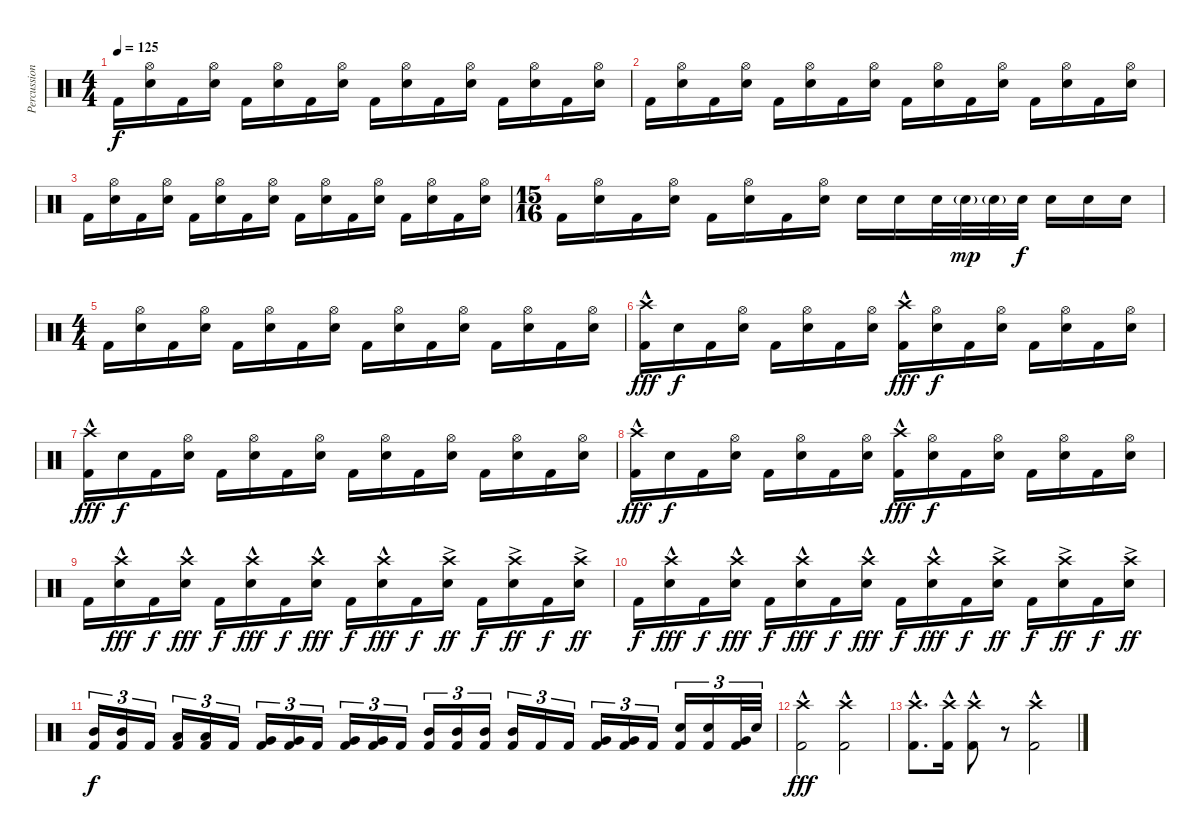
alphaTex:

\track ("Percussion" "Percussion") {instrument percussion}
\staff {score}
\articulation defaults
\ts (4 4)
\tempo 125
\clef neutral
\ks c "Kick (hit) 2".16{dy f}
("Hi-Hat (open)" "Electric Snare (hit)").16 "Kick (hit) 2".16 ("Hi-Hat (open)" "Electric Snare (hit)").16 "Kick (hit) 2".16 ("Hi-Hat (open)" "Electric Snare (hit)").16 "Kick (hit) 2".16 ("Hi-Hat (open)" "Electric Snare (hit)").16 "Kick (hit) 2".16 ("Hi-Hat (open)" "Electric Snare (hit)").16 "Kick (hit) 2".16 ("Hi-Hat (open)" "Electric Snare (hit)").16 "Kick (hit) 2".16 ("Hi-Hat (open)" "Electric Snare (hit)").16 "Kick (hit) 2".16 ("Hi-Hat (open)" "Electric Snare (hit)").16 |
"Kick (hit) 2".16 ("Hi-Hat (open)" "Electric Snare (hit)").16 "Kick (hit) 2".16 ("Hi-Hat (open)" "Electric Snare (hit)").16 "Kick (hit) 2".16 ("Hi-Hat (open)" "Electric Snare (hit)").16 "Kick (hit) 2".16 ("Hi-Hat (open)" "Electric Snare (hit)").16 "Kick (hit) 2".16 ("Hi-Hat (open)" "Electric Snare (hit)").16 "Kick (hit) 2".16 ("Hi-Hat (open)" "Electric Snare (hit)").16 "Kick (hit) 2".16 ("Hi-Hat (open)" "Electric Snare (hit)").16 "Kick (hit) 2".16 ("Hi-Hat (open)" "Electric Snare (hit)").16 |
"Kick (hit) 2".16 ("Hi-Hat (open)" "Electric Snare (hit)").16 "Kick (hit) 2".16 ("Hi-Hat (open)" "Electric Snare (hit)").16 "Kick (hit) 2".16 ("Hi-Hat (open)" "Electric Snare (hit)").16 "Kick (hit) 2".16 ("Hi-Hat (open)" "Electric Snare (hit)").16 "Kick (hit) 2".16 ("Hi-Hat (open)" "Electric Snare (hit)").16 "Kick (hit) 2".16 ("Hi-Hat (open)" "Electric Snare (hit)").16 "Kick (hit) 2".16 ("Hi-Hat (open)" "Electric Snare (hit)").16 "Kick (hit) 2".16 ("Hi-Hat (open)" "Electric Snare (hit)").16 |
\ts (15 16)
"Kick (hit) 2".16 ("Hi-Hat (open)" "Electric Snare (hit)").16 "Kick (hit) 2".16 ("Hi-Hat (open)" "Electric Snare (hit)").16 "Kick (hit) 2".16 ("Hi-Hat (open)" "Electric Snare (hit)").16 "Kick (hit) 2".16 ("Hi-Hat (open)" "Electric Snare (hit)").16 "Electric Snare (hit)".16 "Electric Snare (hit)".16 "Electric Snare (hit)".32 "Electric Snare (hit)"{g}.32{dy mp} "Electric Snare (hit)"{g}.32 "Electric Snare (hit)".32{dy f} "Electric Snare (hit)".16 "Electric Snare (hit)".16 "Electric Snare (hit)".16 |
\ts (4 4)
"Kick (hit) 2".16 ("Hi-Hat (open)" "Electric Snare (hit)").16 "Kick (hit) 2".16 ("Hi-Hat (open)" "Electric Snare (hit)").16 "Kick (hit) 2".16 ("Hi-Hat (open)" "Electric Snare (hit)").16 "Kick (hit) 2".16 ("Hi-Hat (open)" "Electric Snare (hit)").16 "Kick (hit) 2".16 ("Hi-Hat (open)" "Electric Snare (hit)").16 "Kick (hit) 2".16 ("Hi-Hat (open)" "Electric Snare (hit)").16 "Kick (hit) 2".16 ("Hi-Hat (open)" "Electric Snare (hit)").16 "Kick (hit) 2".16 ("Hi-Hat (open)" "Electric Snare (hit)").16 |
("Crash high (hit)"{hac} "Kick (hit) 2").16{dy fff} "Electric Snare (hit)".16{dy f} "Kick (hit) 2".16 ("Hi-Hat (open)" "Electric Snare (hit)").16 "Kick (hit) 2".16 ("Hi-Hat (open)" "Electric Snare (hit)").16 "Kick (hit) 2".16 ("Hi-Hat (open)" "Electric Snare (hit)").16 ("Crash high (hit)"{hac} "Kick (hit) 2").16{dy fff} ("Hi-Hat (open)" "Electric Snare (hit)").16{dy f} "Kick (hit) 2".16 ("Hi-Hat (open)" "Electric Snare (hit)").16 "Kick (hit) 2".16 ("Hi-Hat (open)" "Electric Snare (hit)").16 "Kick (hit) 2".16 ("Hi-Hat (open)" "Electric Snare (hit)").16 |
("Crash high (hit)"{hac} "Kick (hit) 2").16{dy fff} "Electric Snare (hit)".16{dy f} "Kick (hit) 2".16 ("Hi-Hat (open)" "Electric Snare (hit)").16 "Kick (hit) 2".16 ("Hi-Hat (open)" "Electric Snare (hit)").16 "Kick (hit) 2".16 ("Hi-Hat (open)" "Electric Snare (hit)").16 "Kick (hit) 2".16 ("Hi-Hat (open)" "Electric Snare (hit)").16 "Kick (hit) 2".16 ("Hi-Hat (open)" "Electric Snare (hit)").16 "Kick (hit) 2".16 ("Hi-Hat (open)" "Electric Snare (hit)").16 "Kick (hit) 2".16 ("Hi-Hat (open)" "Electric Snare (hit)").16 |
("Crash high (hit)"{hac} "Kick (hit) 2").16{dy fff} "Electric Snare (hit)".16{dy f} "Kick (hit) 2".16 ("Hi-Hat (open)" "Electric Snare (hit)").16 "Kick (hit) 2".16 ("Hi-Hat (open)" "Electric Snare (hit)").16 "Kick (hit) 2".16 ("Hi-Hat (open)" "Electric Snare (hit)").16 ("Crash high (hit)"{hac} "Kick (hit) 2").16{dy fff} ("Hi-Hat (open)" "Electric Snare (hit)").16{dy f} "Kick (hit) 2".16 ("Hi-Hat (open)" "Electric Snare (hit)").16 "Kick (hit) 2".16 ("Hi-Hat (open)" "Electric Snare (hit)").16 "Kick (hit) 2".16 ("Hi-Hat (open)" "Electric Snare (hit)").16 |
"Kick (hit) 2".16 ("Crash high (hit)"{hac} "Electric Snare (hit)").16{dy fff} "Kick (hit) 2".16{dy f} ("Crash high (hit)"{hac} "Electric Snare (hit)").16{dy fff} "Kick (hit) 2".16{dy f} ("Crash high (hit)"{hac} "Electric Snare (hit)").16{dy fff} "Kick (hit) 2".16{dy f} ("Crash high (hit)"{hac} "Electric Snare (hit)").16{dy fff} "Kick (hit) 2".16{dy f} ("Crash high (hit)"{hac} "Electric Snare (hit)").16{dy fff} "Kick (hit) 2".16{dy f} ("Crash high (hit)"{ac} "Electric Snare (hit)").16{dy ff} "Kick (hit) 2".16{dy f} ("Crash high (hit)"{ac} "Electric Snare (hit)").16{dy ff} "Kick (hit) 2".16{dy f} ("Crash high (hit)"{ac} "Electric Snare (hit)").16{dy ff} |
"Kick (hit) 2".16{dy f} ("Crash high (hit)"{hac} "Electric Snare (hit)").16{dy fff} "Kick (hit) 2".16{dy f} ("Crash high (hit)"{hac} "Electric Snare (hit)").16{dy fff} "Kick (hit) 2".16{dy f} ("Crash high (hit)"{hac} "Electric Snare (hit)").16{dy fff} "Kick (hit) 2".16{dy f} ("Crash high (hit)"{hac} "Electric Snare (hit)").16{dy fff} "Kick (hit) 2".16{dy f} ("Crash high (hit)"{hac} "Electric Snare (hit)").16{dy fff} "Kick (hit) 2".16{dy f} ("Crash high (hit)"{ac} "Electric Snare (hit)").16{dy ff} "Kick (hit) 2".16{dy f} ("Crash high (hit)"{ac} "Electric Snare (hit)").16{dy ff} "Kick (hit) 2".16{dy f} ("Crash high (hit)"{ac} "Electric Snare (hit)").16{dy ff} |
("Mid Tom (hit)" "Kick (hit) 2").16{tu (3 2) dy f} ("Mid Tom (hit)" "Kick (hit) 2").16{tu (3 2)} "Kick (hit) 2".16{tu (3 2) beam splitsecondary} ("Low Tom (hit)" "Kick (hit) 2").16{tu (3 2)} ("Low Tom (hit)" "Kick (hit) 2").16{tu (3 2)} "Kick (hit) 2".16{tu (3 2)} ("Very Low Tom (hit)" "Kick (hit) 2").16{tu (3 2)} ("Very Low Tom (hit)" "Kick (hit) 2").16{tu (3 2)} "Kick (hit) 2".16{tu (3 2) beam splitsecondary} ("Very Low Tom (hit)" "Kick (hit) 2").16{tu (3 2)} ("Very Low Tom (hit)" "Kick (hit) 2").16{tu (3 2)} "Kick (hit) 2".16{tu (3 2)} ("Mid Tom (hit)" "Kick (hit) 2").16{tu (3 2)} ("Mid Tom (hit)" "Kick (hit) 2").16{tu (3 2)} ("Mid Tom (hit)" "Kick (hit) 2").16{tu (3 2) beam splitsecondary} ("Mid Tom (hit)" "Kick (hit) 2").16{tu (3 2)} "Kick (hit) 2".16{tu (3 2)} "Kick (hit) 2".16{tu (3 2)} ("Very Low Tom (hit)" "Kick (hit) 2").16{tu (3 2)} ("Very Low Tom (hit)" "Kick (hit) 2").16{tu (3 2)} "Kick (hit) 2".16{tu (3 2) beam splitsecondary} ("Electric Snare (hit)" "Kick (hit) 2").16{tu (3 2)} ("Electric Snare (hit)" "Kick (hit) 2").16{tu (3 2)} ("Very Low Tom (hit)" "Kick (hit) 2").32{tu (3 2)} "Electric Snare (hit)".32{tu (3 2)} |
("Crash high (hit)"{hac} "Kick (hit) 2").2{dy fff} ("Crash high (hit)"{hac} "Kick (hit) 2").2 |
("Crash high (hit)"{hac} "Kick (hit) 2").8{d} ("Crash high (hit)"{hac} "Kick (hit) 2").16 ("Crash high (hit)"{hac} "Kick (hit) 2").8 r.8 ("Crash high (hit)"{hac} "Kick (hit) 2").2
